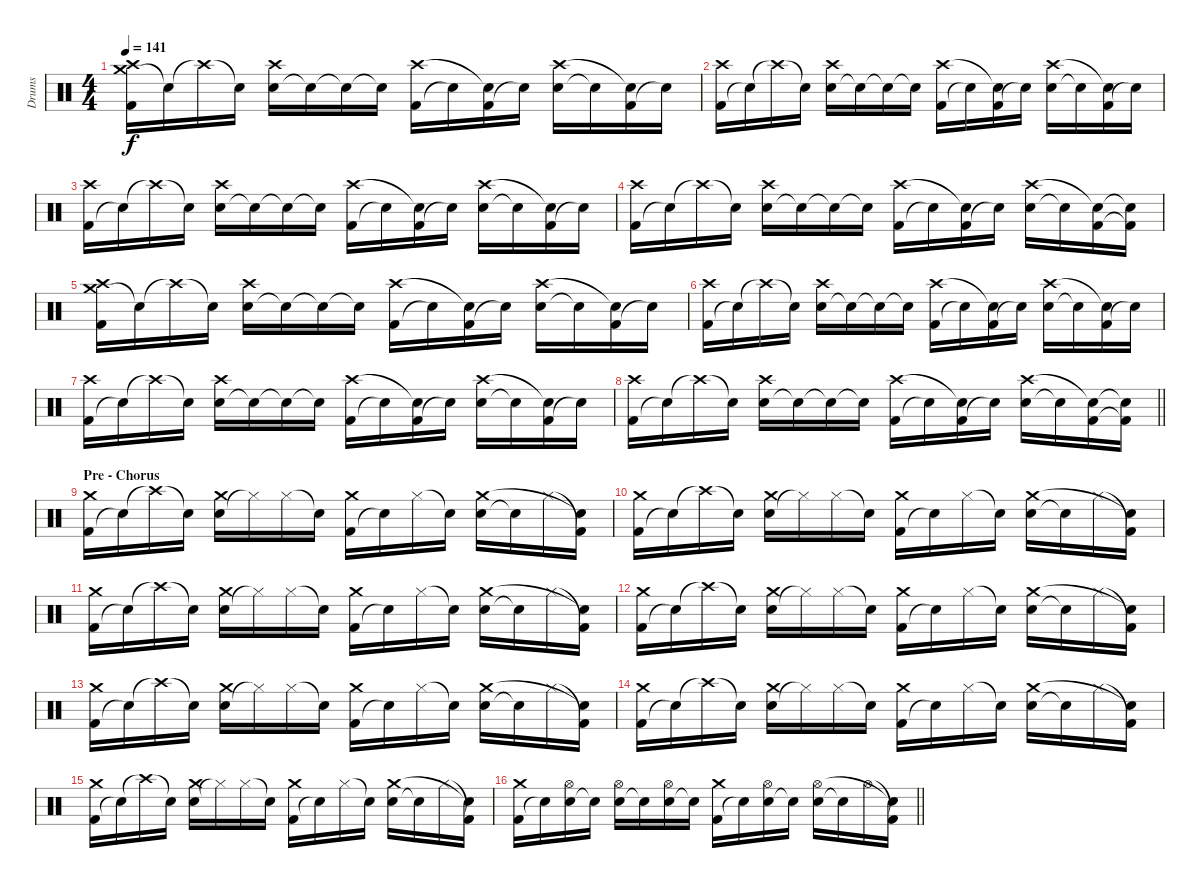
\track ("Drums" "Drums") {instrument percussion}
\staff {score}
\articulation defaults
\ts (4 4)
\tempo 141
\clef neutral
\ks c
("Crash medium (hit)" "Kick (hit) 2" "Crash high (hit)").16{dy f} "Snare (hit)"{t}.16 "Crash high (hit)"{t}.16 "Snare (hit)"{t}.16 ("Snare (hit) 2" "Crash high (hit)").16 "Snare (hit)"{t}.16 "Snare (hit)"{t}.16 "Snare (hit)"{t}.16 ("Kick (hit) 2" "Crash high (hit)").16 "Snare (hit)"{t}.16 ("Kick (hit) 2" "Snare (hit)"{t}).16 "Snare (hit)"{t}.16 ("Snare (hit) 2" "Crash high (hit)").16 "Snare (hit)"{t}.16 ("Kick (hit) 2" "Snare (hit)"{t}).16 "Snare (hit)"{t}.16 |
("Kick (hit) 2" "Crash high (hit)").16 "Snare (hit)"{t}.16 "Crash high (hit)"{t}.16 "Snare (hit)"{t}.16 ("Snare (hit) 2" "Crash high (hit)").16 "Snare (hit)"{t}.16 "Snare (hit)"{t}.16 "Snare (hit)"{t}.16 ("Kick (hit) 2" "Crash high (hit)").16 "Snare (hit)"{t}.16 ("Kick (hit) 2" "Snare (hit)"{t}).16 "Snare (hit)"{t}.16 ("Snare (hit) 2" "Crash high (hit)").16 "Snare (hit)"{t}.16 ("Kick (hit) 2" "Snare (hit)"{t}).16 "Snare (hit)"{t}.16 |
("Kick (hit) 2" "Crash high (hit)").16 "Snare (hit)"{t}.16 "Crash high (hit)"{t}.16 "Snare (hit)"{t}.16 ("Snare (hit) 2" "Crash high (hit)").16 "Snare (hit)"{t}.16 "Snare (hit)"{t}.16 "Snare (hit)"{t}.16 ("Kick (hit) 2" "Crash high (hit)").16 "Snare (hit)"{t}.16 ("Kick (hit) 2" "Snare (hit)"{t}).16 "Snare (hit)"{t}.16 ("Snare (hit) 2" "Crash high (hit)").16 "Snare (hit)"{t}.16 ("Kick (hit) 2" "Snare (hit)"{t}).16 "Snare (hit)"{t}.16 |
("Kick (hit) 2" "Crash high (hit)").16 "Snare (hit)"{t}.16 "Crash high (hit)"{t}.16 "Snare (hit)"{t}.16 ("Snare (hit) 2" "Crash high (hit)").16 "Snare (hit)"{t}.16 "Snare (hit)"{t}.16 "Snare (hit)"{t}.16 ("Kick (hit) 2" "Crash high (hit)").16 "Snare (hit)"{t}.16 ("Kick (hit) 2" "Snare (hit)"{t}).16 "Snare (hit)"{t}.16 ("Snare (hit) 2" "Crash high (hit)").16 "Snare (hit)"{t}.16 ("Kick (hit) 2" "Snare (hit)"{t}).16 ("Kick (hit) 2"{t} "Snare (hit)"{t}).16 |
("Crash medium (hit)" "Kick (hit) 2" "Crash high (hit)").16 "Snare (hit)"{t}.16 "Crash high (hit)"{t}.16 "Snare (hit)"{t}.16 ("Snare (hit) 2" "Crash high (hit)").16 "Snare (hit)"{t}.16 "Snare (hit)"{t}.16 "Snare (hit)"{t}.16 ("Kick (hit) 2" "Crash high (hit)").16 "Snare (hit)"{t}.16 ("Kick (hit) 2" "Snare (hit)"{t}).16 "Snare (hit)"{t}.16 ("Snare (hit) 2" "Crash high (hit)").16 "Snare (hit)"{t}.16 ("Kick (hit) 2" "Snare (hit)"{t}).16 "Snare (hit)"{t}.16 |
("Kick (hit) 2" "Crash high (hit)").16 "Snare (hit)"{t}.16 "Crash high (hit)"{t}.16 "Snare (hit)"{t}.16 ("Snare (hit) 2" "Crash high (hit)").16 "Snare (hit)"{t}.16 "Snare (hit)"{t}.16 "Snare (hit)"{t}.16 ("Kick (hit) 2" "Crash high (hit)").16 "Snare (hit)"{t}.16 ("Kick (hit) 2" "Snare (hit)"{t}).16 "Snare (hit)"{t}.16 ("Snare (hit) 2" "Crash high (hit)").16 "Snare (hit)"{t}.16 ("Kick (hit) 2" "Snare (hit)"{t}).16 "Snare (hit)"{t}.16 |
("Kick (hit) 2" "Crash high (hit)").16 "Snare (hit)"{t}.16 "Crash high (hit)"{t}.16 "Snare (hit)"{t}.16 ("Snare (hit) 2" "Crash high (hit)").16 "Snare (hit)"{t}.16 "Snare (hit)"{t}.16 "Snare (hit)"{t}.16 ("Kick (hit) 2" "Crash high (hit)").16 "Snare (hit)"{t}.16 ("Kick (hit) 2" "Snare (hit)"{t}).16 "Snare (hit)"{t}.16 ("Snare (hit) 2" "Crash high (hit)").16 "Snare (hit)"{t}.16 ("Kick (hit) 2" "Snare (hit)"{t}).16 "Snare (hit)"{t}.16 |
\barLineRight lightlight
("Kick (hit) 2" "Crash high (hit)").16 "Snare (hit)"{t}.16 "Crash high (hit)"{t}.16 "Snare (hit)"{t}.16 ("Snare (hit) 2" "Crash high (hit)").16 "Snare (hit)"{t}.16 "Snare (hit)"{t}.16 "Snare (hit)"{t}.16 ("Kick (hit) 2" "Crash high (hit)").16 "Snare (hit)"{t}.16 ("Kick (hit) 2" "Snare (hit)"{t}).16 "Snare (hit)"{t}.16 ("Snare (hit) 2" "Crash high (hit)").16 "Snare (hit)"{t}.16 ("Kick (hit) 2" "Snare (hit)"{t}).16 ("Kick (hit) 2"{t} "Snare (hit)"{t}).16 |
\section ("" "Pre - Chorus")
("Kick (hit) 2" "Crash medium (hit)").16 "Snare (hit)"{t}.16 "Crash high (hit)"{t}.16 "Snare (hit)"{t}.16 ("Snare (hit) 2" "Crash medium (hit)").16 "Hi-Hat (closed)"{t}.16 "Hi-Hat (closed)".16 "Snare (hit)"{t}.16 ("Kick (hit) 2" "Crash medium (hit)").16 "Snare (hit)"{t}.16 "Hi-Hat (closed)".16 "Snare (hit)"{t}.16 ("Snare (hit) 2" "Crash medium (hit)").16 "Snare (hit)"{t}.16 "Hi-Hat (closed)".16 ("Kick (hit) 2"{t} "Snare (hit)"{t}).16 |
("Kick (hit) 2" "Crash medium (hit)").16 "Snare (hit)"{t}.16 "Crash high (hit)"{t}.16 "Snare (hit)"{t}.16 ("Snare (hit) 2" "Crash medium (hit)").16 "Hi-Hat (closed)"{t}.16 "Hi-Hat (closed)".16 "Snare (hit)"{t}.16 ("Kick (hit) 2" "Crash medium (hit)").16 "Snare (hit)"{t}.16 "Hi-Hat (closed)".16 "Snare (hit)"{t}.16 ("Snare (hit) 2" "Crash medium (hit)").16 "Snare (hit)"{t}.16 "Hi-Hat (closed)".16 ("Kick (hit) 2"{t} "Snare (hit)"{t}).16 |
("Kick (hit) 2" "Crash medium (hit)").16 "Snare (hit)"{t}.16 "Crash high (hit)"{t}.16 "Snare (hit)"{t}.16 ("Snare (hit) 2" "Crash medium (hit)").16 "Hi-Hat (closed)"{t}.16 "Hi-Hat (closed)".16 "Snare (hit)"{t}.16 ("Kick (hit) 2" "Crash medium (hit)").16 "Snare (hit)"{t}.16 "Hi-Hat (closed)".16 "Snare (hit)"{t}.16 ("Snare (hit) 2" "Crash medium (hit)").16 "Snare (hit)"{t}.16 "Hi-Hat (closed)".16 ("Kick (hit) 2"{t} "Snare (hit)"{t}).16 |
("Kick (hit) 2" "Crash medium (hit)").16 "Snare (hit)"{t}.16 "Crash high (hit)"{t}.16 "Snare (hit)"{t}.16 ("Snare (hit) 2" "Crash medium (hit)").16 "Hi-Hat (closed)"{t}.16 "Hi-Hat (closed)".16 "Snare (hit)"{t}.16 ("Kick (hit) 2" "Crash medium (hit)").16 "Snare (hit)"{t}.16 "Hi-Hat (closed)".16 "Snare (hit)"{t}.16 ("Snare (hit) 2" "Crash medium (hit)").16 "Snare (hit)"{t}.16 "Hi-Hat (closed)".16 ("Kick (hit) 2"{t} "Snare (hit)"{t}).16 |
("Kick (hit) 2" "Crash medium (hit)").16 "Snare (hit)"{t}.16 "Crash high (hit)"{t}.16 "Snare (hit)"{t}.16 ("Snare (hit) 2" "Crash medium (hit)").16 "Hi-Hat (closed)"{t}.16 "Hi-Hat (closed)".16 "Snare (hit)"{t}.16 ("Kick (hit) 2" "Crash medium (hit)").16 "Snare (hit)"{t}.16 "Hi-Hat (closed)".16 "Snare (hit)"{t}.16 ("Snare (hit) 2" "Crash medium (hit)").16 "Snare (hit)"{t}.16 "Hi-Hat (closed)".16 ("Kick (hit) 2"{t} "Snare (hit)"{t}).16 |
("Kick (hit) 2" "Crash medium (hit)").16 "Snare (hit)"{t}.16 "Crash high (hit)"{t}.16 "Snare (hit)"{t}.16 ("Snare (hit) 2" "Crash medium (hit)").16 "Hi-Hat (closed)"{t}.16 "Hi-Hat (closed)".16 "Snare (hit)"{t}.16 ("Kick (hit) 2" "Crash medium (hit)").16 "Snare (hit)"{t}.16 "Hi-Hat (closed)".16 "Snare (hit)"{t}.16 ("Snare (hit) 2" "Crash medium (hit)").16 "Snare (hit)"{t}.16 "Hi-Hat (closed)".16 ("Kick (hit) 2"{t} "Snare (hit)"{t}).16 |
("Kick (hit) 2" "Crash medium (hit)").16 "Snare (hit)"{t}.16 "Crash high (hit)"{t}.16 "Snare (hit)"{t}.16 ("Snare (hit) 2" "Crash medium (hit)").16 "Hi-Hat (closed)"{t}.16 "Hi-Hat (closed)".16 "Snare (hit)"{t}.16 ("Kick (hit) 2" "Crash medium (hit)").16 "Snare (hit)"{t}.16 "Hi-Hat (closed)".16 "Snare (hit)"{t}.16 ("Snare (hit) 2" "Crash medium (hit)").16 "Snare (hit)"{t}.16 "Hi-Hat (closed)".16 ("Kick (hit) 2"{t} "Snare (hit)"{t}).16 |
\barLineRight lightlight
("Kick (hit) 2" "Crash medium (hit)").16 "Snare (hit)"{t}.16 ("Snare (hit) 2" "Hi-Hat (open)").16 "Snare (hit)"{t}.16 ("Snare (hit) 2" "Hi-Hat (open)").16 "Snare (hit)"{t}.16 ("Snare (hit) 2" "Hi-Hat (open)").16 "Snare (hit)"{t}.16 ("Kick (hit) 2" "Crash medium (hit)").16 "Snare (hit)"{t}.16 ("Snare (hit) 2" "Hi-Hat (open)").16 "Snare (hit)"{t}.16 ("Snare (hit) 2" "Hi-Hat (open)").16 "Snare (hit)"{t}.16 "Hi-Hat (open)".16 ("Kick (hit) 2"{t} "Snare (hit)"{t}).16
